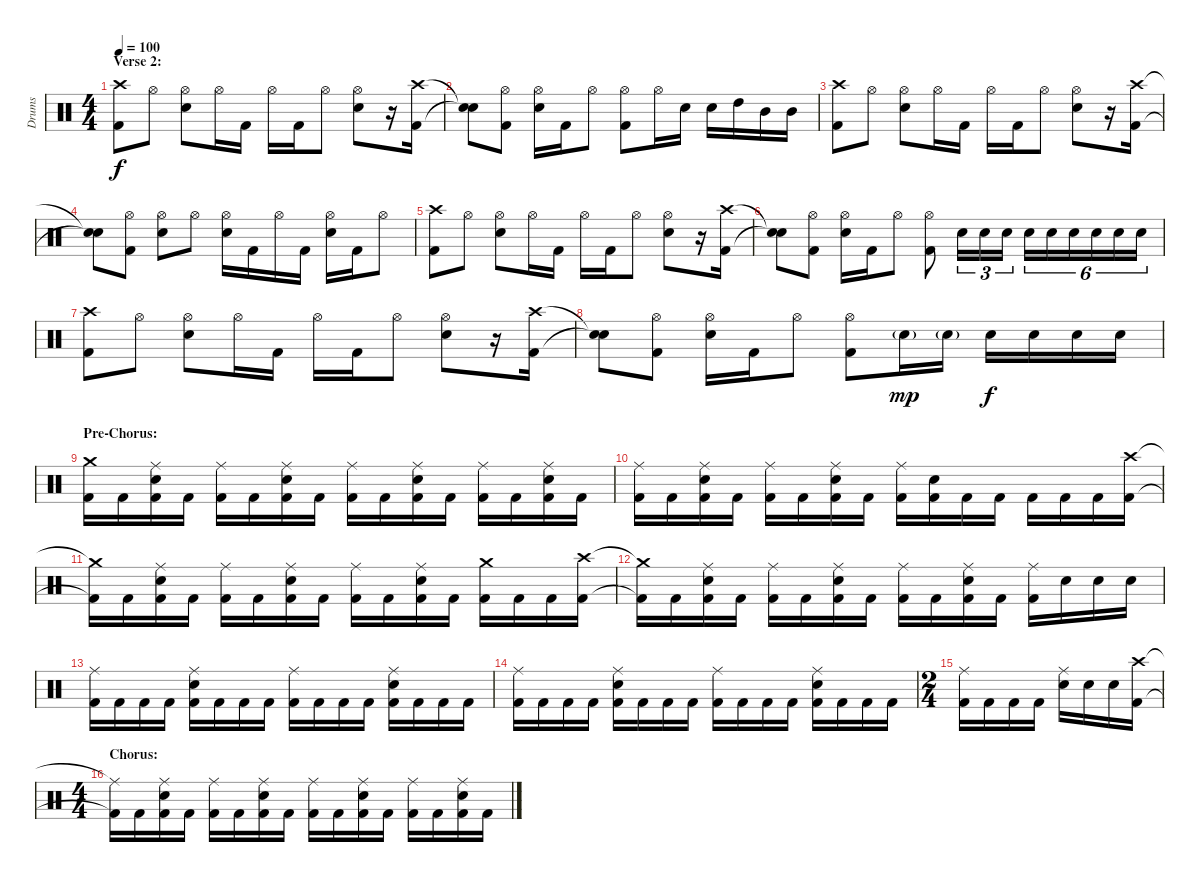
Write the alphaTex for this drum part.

\track ("Drums" "Drums") {instrument percussion}
\staff {score}
\articulation defaults
\ts (4 4)
\section ("" "Verse 2:")
\tempo 100
\clef neutral
\ks c
("Crash high (hit)" "Kick (hit) 2").8{dy f} "Hi-Hat (open)".8 ("Hi-Hat (open)" "Electric Snare (hit)").8 "Hi-Hat (open)".16 "Kick (hit) 2".16 "Hi-Hat (open)".16 "Kick (hit) 2".16 "Hi-Hat (open)".8 ("Hi-Hat (open)" "Electric Snare (hit)").8 r.16 ("Crash high (hit)" "Kick (hit) 2").16 |
("Snare (hit)"{t} "Snare (hit)"{t}).8 ("Hi-Hat (open)" "Kick (hit) 2").8 ("Hi-Hat (open)" "Electric Snare (hit)").16 "Kick (hit) 2".16 "Hi-Hat (open)".8 ("Hi-Hat (open)" "Kick (hit) 2").8 "Hi-Hat (open)".16 "Electric Snare (hit)".16 "Electric Snare (hit)".16 "High Tom (hit)".16 "Mid Tom (hit)".16 "Mid Tom (hit)".16 |
("Crash high (hit)" "Kick (hit) 2").8 "Hi-Hat (open)".8 ("Hi-Hat (open)" "Electric Snare (hit)").8 "Hi-Hat (open)".16 "Kick (hit) 2".16 "Hi-Hat (open)".16 "Kick (hit) 2".16 "Hi-Hat (open)".8 ("Hi-Hat (open)" "Electric Snare (hit)").8 r.16 ("Crash high (hit)" "Kick (hit) 2").16 |
("Snare (hit)"{t} "Snare (hit)"{t}).8 ("Hi-Hat (open)" "Kick (hit) 2").8 ("Hi-Hat (open)" "Electric Snare (hit)").8 "Hi-Hat (open)".8 ("Hi-Hat (open)" "Electric Snare (hit)").16 "Kick (hit) 2".16 "Hi-Hat (open)".16 "Kick (hit) 2".16 ("Hi-Hat (open)" "Electric Snare (hit)").16 "Kick (hit) 2".16 "Hi-Hat (open)".8 |
("Crash high (hit)" "Kick (hit) 2").8 "Hi-Hat (open)".8 ("Hi-Hat (open)" "Electric Snare (hit)").8 "Hi-Hat (open)".16 "Kick (hit) 2".16 "Hi-Hat (open)".16 "Kick (hit) 2".16 "Hi-Hat (open)".8 ("Hi-Hat (open)" "Electric Snare (hit)").8 r.16 ("Crash high (hit)" "Kick (hit) 2").16 |
("Snare (hit)"{t} "Snare (hit)"{t}).8 ("Hi-Hat (open)" "Kick (hit) 2").8 ("Hi-Hat (open)" "Electric Snare (hit)").16 "Kick (hit) 2".16 "Hi-Hat (open)".8 ("Hi-Hat (open)" "Kick (hit) 2").8 "Electric Snare (hit)".16{tu (3 2)} "Electric Snare (hit)".16{tu (3 2)} "Electric Snare (hit)".16{tu (3 2)} "Electric Snare (hit)".16{tu (6 4)} "Electric Snare (hit)".16{tu (6 4)} "Electric Snare (hit)".16{tu (6 4)} "Electric Snare (hit)".16{tu (6 4)} "Electric Snare (hit)".16{tu (6 4)} "Electric Snare (hit)".16{tu (6 4)} |
("Crash high (hit)" "Kick (hit) 2").8 "Hi-Hat (open)".8 ("Hi-Hat (open)" "Electric Snare (hit)").8 "Hi-Hat (open)".16 "Kick (hit) 2".16 "Hi-Hat (open)".16 "Kick (hit) 2".16 "Hi-Hat (open)".8 ("Hi-Hat (open)" "Electric Snare (hit)").8 r.16 ("Crash high (hit)" "Kick (hit) 2").16 |
("Snare (hit)"{t} "Snare (hit)"{t}).8 ("Hi-Hat (open)" "Kick (hit) 2").8 ("Hi-Hat (open)" "Electric Snare (hit)").16 "Kick (hit) 2".16 "Hi-Hat (open)".8 ("Hi-Hat (open)" "Kick (hit) 2").8 "Electric Snare (hit)"{g}.16{dy mp} "Electric Snare (hit)"{g}.16 "Electric Snare (hit)".16{dy f} "Electric Snare (hit)".16 "Electric Snare (hit)".16 "Electric Snare (hit)".16 |
\section ("" "Pre-Chorus:")
("Crash medium (hit)" "Kick (hit) 2").16 "Kick (hit) 2".16 ("Ride (middle)" "Electric Snare (hit)" "Kick (hit) 2").16 "Kick (hit) 2".16 ("Ride (middle)" "Kick (hit) 2").16 "Kick (hit) 2".16 ("Ride (middle)" "Electric Snare (hit)" "Kick (hit) 2").16 "Kick (hit) 2".16 ("Ride (middle)" "Kick (hit) 2").16 "Kick (hit) 2".16 ("Ride (middle)" "Electric Snare (hit)" "Kick (hit) 2").16 "Kick (hit) 2".16 ("Ride (middle)" "Kick (hit) 2").16 "Kick (hit) 2".16 ("Ride (middle)" "Electric Snare (hit)" "Kick (hit) 2").16 "Kick (hit) 2".16 |
("Ride (middle)" "Kick (hit) 2").16 "Kick (hit) 2".16 ("Ride (middle)" "Electric Snare (hit)" "Kick (hit) 2").16 "Kick (hit) 2".16 ("Ride (middle)" "Kick (hit) 2").16 "Kick (hit) 2".16 ("Ride (middle)" "Electric Snare (hit)" "Kick (hit) 2").16 "Kick (hit) 2".16 ("Ride (middle)" "Kick (hit) 2").16 ("Electric Snare (hit)" "Kick (hit) 2").16 "Kick (hit) 2".16 "Kick (hit) 2".16 "Kick (hit) 2".16 "Kick (hit) 2".16 "Kick (hit) 2".16 ("Crash high (hit)" "Kick (hit) 2").16 |
("Crash medium (hit)"{t} "Kick (hit) 2"{t}).16 "Kick (hit) 2".16 ("Ride (middle)" "Electric Snare (hit)" "Kick (hit) 2").16 "Kick (hit) 2".16 ("Ride (middle)" "Kick (hit) 2").16 "Kick (hit) 2".16 ("Ride (middle)" "Electric Snare (hit)" "Kick (hit) 2").16 "Kick (hit) 2".16 ("Ride (middle)" "Kick (hit) 2").16 "Kick (hit) 2".16 ("Ride (middle)" "Electric Snare (hit)" "Kick (hit) 2").16 "Kick (hit) 2".16 ("Crash medium (hit)" "Kick (hit) 2").16 "Kick (hit) 2".16 "Kick (hit) 2".16 ("Crash high (hit)" "Kick (hit) 2").16 |
("Crash medium (hit)"{t} "Kick (hit) 2"{t}).16 "Kick (hit) 2".16 ("Ride (middle)" "Electric Snare (hit)" "Kick (hit) 2").16 "Kick (hit) 2".16 ("Ride (middle)" "Kick (hit) 2").16 "Kick (hit) 2".16 ("Ride (middle)" "Electric Snare (hit)" "Kick (hit) 2").16 "Kick (hit) 2".16 ("Ride (middle)" "Kick (hit) 2").16 "Kick (hit) 2".16 ("Ride (middle)" "Electric Snare (hit)" "Kick (hit) 2").16 "Kick (hit) 2".16 ("Ride (middle)" "Kick (hit) 2").16 "Electric Snare (hit)".16 "Electric Snare (hit)".16 "Electric Snare (hit)".16 |
("Ride (middle)" "Kick (hit) 2").16 "Kick (hit) 2".16 "Kick (hit) 2".16 "Kick (hit) 2".16 ("Ride (middle)" "Electric Snare (hit)" "Kick (hit) 2").16 "Kick (hit) 2".16 "Kick (hit) 2".16 "Kick (hit) 2".16 ("Ride (middle)" "Kick (hit) 2").16 "Kick (hit) 2".16 "Kick (hit) 2".16 "Kick (hit) 2".16 ("Ride (middle)" "Electric Snare (hit)" "Kick (hit) 2").16 "Kick (hit) 2".16 "Kick (hit) 2".16 "Kick (hit) 2".16 |
("Ride (middle)" "Kick (hit) 2").16 "Kick (hit) 2".16 "Kick (hit) 2".16 "Kick (hit) 2".16 ("Ride (middle)" "Electric Snare (hit)" "Kick (hit) 2").16 "Kick (hit) 2".16 "Kick (hit) 2".16 "Kick (hit) 2".16 ("Ride (middle)" "Kick (hit) 2").16 "Kick (hit) 2".16 "Kick (hit) 2".16 "Kick (hit) 2".16 ("Ride (middle)" "Electric Snare (hit)" "Kick (hit) 2").16 "Kick (hit) 2".16 "Kick (hit) 2".16 "Kick (hit) 2".16 |
\ts (2 4)
("Ride (middle)" "Kick (hit) 2").16 "Kick (hit) 2".16 "Kick (hit) 2".16 "Kick (hit) 2".16 ("Ride (middle)" "Electric Snare (hit)").16 "Electric Snare (hit)".16 "Electric Snare (hit)".16 ("Crash high (hit)" "Kick (hit) 2").16 |
\ts (4 4)
\section ("" "Chorus:")
("Ride (middle)"{t} "Kick (hit) 2"{t}).16 "Kick (hit) 2".16 ("Ride (middle)" "Electric Snare (hit)" "Kick (hit) 2").16 "Kick (hit) 2".16 ("Ride (middle)" "Kick (hit) 2").16 "Kick (hit) 2".16 ("Ride (middle)" "Electric Snare (hit)" "Kick (hit) 2").16 "Kick (hit) 2".16 ("Ride (middle)" "Kick (hit) 2").16 "Kick (hit) 2".16 ("Ride (middle)" "Electric Snare (hit)" "Kick (hit) 2").16 "Kick (hit) 2".16 ("Ride (middle)" "Kick (hit) 2").16 "Kick (hit) 2".16 ("Ride (middle)" "Electric Snare (hit)" "Kick (hit) 2").16 "Kick (hit) 2".16
